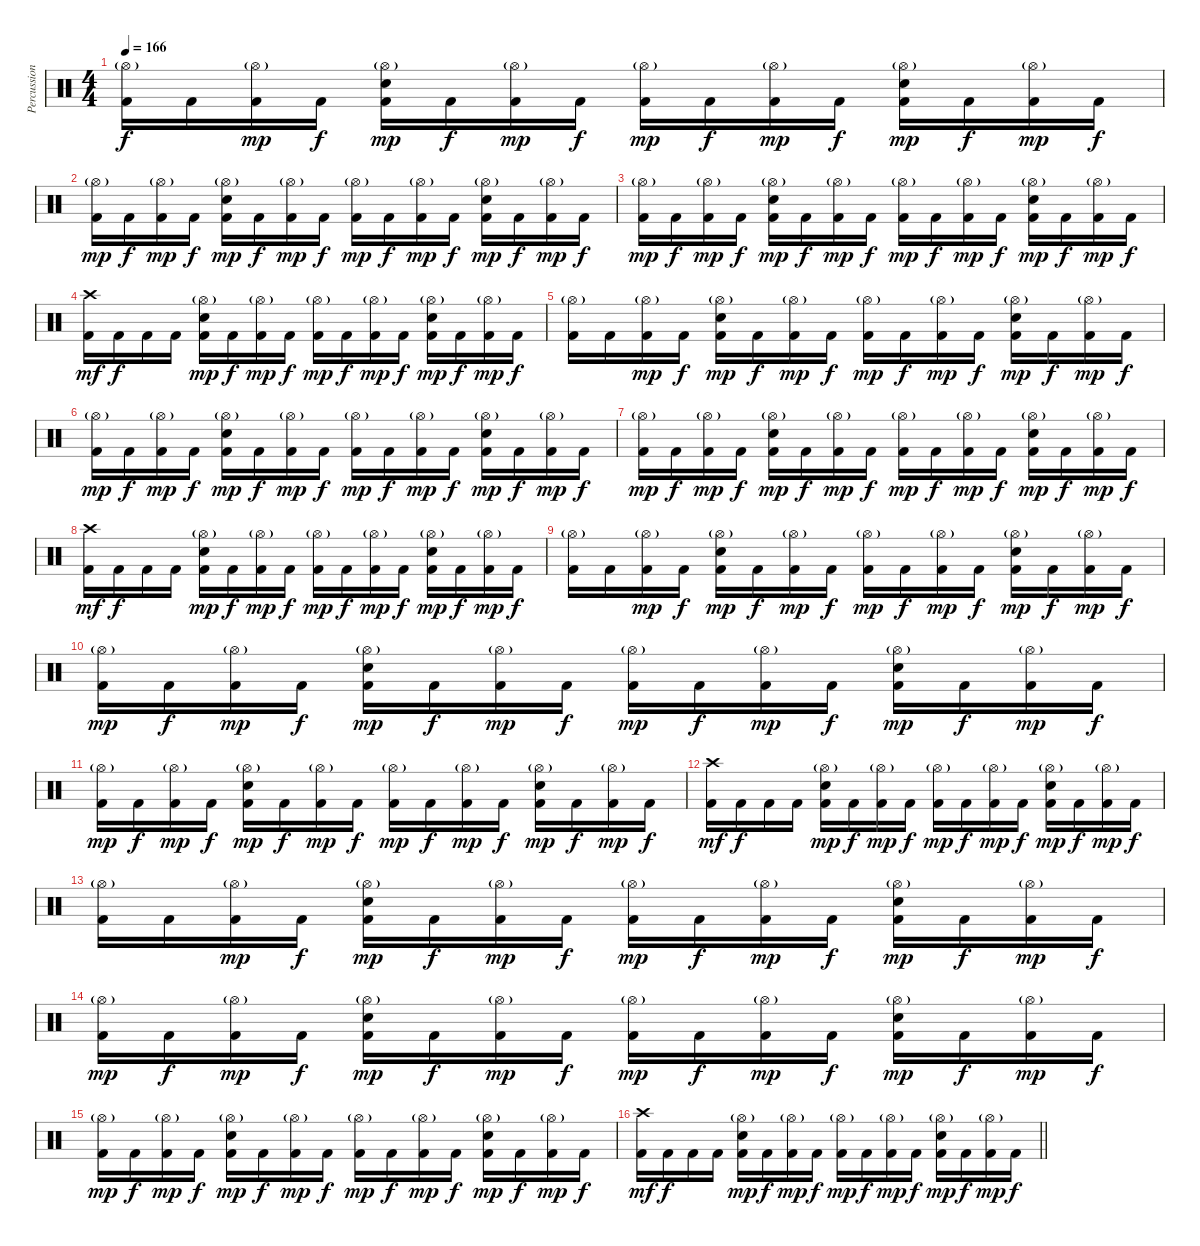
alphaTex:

\track ("Percussion" "Percussion") {instrument percussion}
\staff {score}
\articulation defaults
\ts (4 4)
\tempo 166
\clef neutral
\ks c
("Kick (hit) 2" "Hi-Hat (open)"{g}).16{dy f} "Kick (hit) 2".16 ("Kick (hit) 2" "Hi-Hat (open)"{g}).16{dy mp} "Kick (hit) 2".16{dy f} ("Kick (hit) 2" "Electric Snare (hit)" "Hi-Hat (open)"{g}).16{dy mp} "Kick (hit) 2".16{dy f} ("Kick (hit) 2" "Hi-Hat (open)"{g}).16{dy mp} "Kick (hit) 2".16{dy f} ("Kick (hit) 2" "Hi-Hat (open)"{g}).16{dy mp} "Kick (hit) 2".16{dy f} ("Kick (hit) 2" "Hi-Hat (open)"{g}).16{dy mp} "Kick (hit) 2".16{dy f} ("Kick (hit) 2" "Electric Snare (hit)" "Hi-Hat (open)"{g}).16{dy mp} "Kick (hit) 2".16{dy f} ("Kick (hit) 2" "Hi-Hat (open)"{g}).16{dy mp} "Kick (hit) 2".16{dy f} |
("Kick (hit) 2" "Hi-Hat (open)"{g}).16{dy mp} "Kick (hit) 2".16{dy f} ("Kick (hit) 2" "Hi-Hat (open)"{g}).16{dy mp} "Kick (hit) 2".16{dy f} ("Kick (hit) 2" "Electric Snare (hit)" "Hi-Hat (open)"{g}).16{dy mp} "Kick (hit) 2".16{dy f} ("Kick (hit) 2" "Hi-Hat (open)"{g}).16{dy mp} "Kick (hit) 2".16{dy f} ("Kick (hit) 2" "Hi-Hat (open)"{g}).16{dy mp} "Kick (hit) 2".16{dy f} ("Kick (hit) 2" "Hi-Hat (open)"{g}).16{dy mp} "Kick (hit) 2".16{dy f} ("Kick (hit) 2" "Electric Snare (hit)" "Hi-Hat (open)"{g}).16{dy mp} "Kick (hit) 2".16{dy f} ("Kick (hit) 2" "Hi-Hat (open)"{g}).16{dy mp} "Kick (hit) 2".16{dy f} |
("Kick (hit) 2" "Hi-Hat (open)"{g}).16{dy mp} "Kick (hit) 2".16{dy f} ("Kick (hit) 2" "Hi-Hat (open)"{g}).16{dy mp} "Kick (hit) 2".16{dy f} ("Kick (hit) 2" "Electric Snare (hit)" "Hi-Hat (open)"{g}).16{dy mp} "Kick (hit) 2".16{dy f} ("Kick (hit) 2" "Hi-Hat (open)"{g}).16{dy mp} "Kick (hit) 2".16{dy f} ("Kick (hit) 2" "Hi-Hat (open)"{g}).16{dy mp} "Kick (hit) 2".16{dy f} ("Kick (hit) 2" "Hi-Hat (open)"{g}).16{dy mp} "Kick (hit) 2".16{dy f} ("Kick (hit) 2" "Electric Snare (hit)" "Hi-Hat (open)"{g}).16{dy mp} "Kick (hit) 2".16{dy f} ("Kick (hit) 2" "Hi-Hat (open)"{g}).16{dy mp} "Kick (hit) 2".16{dy f} |
("Kick (hit) 2" "Crash high (hit)").16{dy mf} "Kick (hit) 2".16{dy f} "Kick (hit) 2".16 "Kick (hit) 2".16 ("Kick (hit) 2" "Electric Snare (hit)" "Hi-Hat (open)"{g}).16{dy mp} "Kick (hit) 2".16{dy f} ("Kick (hit) 2" "Hi-Hat (open)"{g}).16{dy mp} "Kick (hit) 2".16{dy f} ("Kick (hit) 2" "Hi-Hat (open)"{g}).16{dy mp} "Kick (hit) 2".16{dy f} ("Kick (hit) 2" "Hi-Hat (open)"{g}).16{dy mp} "Kick (hit) 2".16{dy f} ("Kick (hit) 2" "Electric Snare (hit)" "Hi-Hat (open)"{g}).16{dy mp} "Kick (hit) 2".16{dy f} ("Kick (hit) 2" "Hi-Hat (open)"{g}).16{dy mp} "Kick (hit) 2".16{dy f} |
("Kick (hit) 2" "Hi-Hat (open)"{g}).16 "Kick (hit) 2".16 ("Kick (hit) 2" "Hi-Hat (open)"{g}).16{dy mp} "Kick (hit) 2".16{dy f} ("Kick (hit) 2" "Electric Snare (hit)" "Hi-Hat (open)"{g}).16{dy mp} "Kick (hit) 2".16{dy f} ("Kick (hit) 2" "Hi-Hat (open)"{g}).16{dy mp} "Kick (hit) 2".16{dy f} ("Kick (hit) 2" "Hi-Hat (open)"{g}).16{dy mp} "Kick (hit) 2".16{dy f} ("Kick (hit) 2" "Hi-Hat (open)"{g}).16{dy mp} "Kick (hit) 2".16{dy f} ("Kick (hit) 2" "Electric Snare (hit)" "Hi-Hat (open)"{g}).16{dy mp} "Kick (hit) 2".16{dy f} ("Kick (hit) 2" "Hi-Hat (open)"{g}).16{dy mp} "Kick (hit) 2".16{dy f} |
("Kick (hit) 2" "Hi-Hat (open)"{g}).16{dy mp} "Kick (hit) 2".16{dy f} ("Kick (hit) 2" "Hi-Hat (open)"{g}).16{dy mp} "Kick (hit) 2".16{dy f} ("Kick (hit) 2" "Electric Snare (hit)" "Hi-Hat (open)"{g}).16{dy mp} "Kick (hit) 2".16{dy f} ("Kick (hit) 2" "Hi-Hat (open)"{g}).16{dy mp} "Kick (hit) 2".16{dy f} ("Kick (hit) 2" "Hi-Hat (open)"{g}).16{dy mp} "Kick (hit) 2".16{dy f} ("Kick (hit) 2" "Hi-Hat (open)"{g}).16{dy mp} "Kick (hit) 2".16{dy f} ("Kick (hit) 2" "Electric Snare (hit)" "Hi-Hat (open)"{g}).16{dy mp} "Kick (hit) 2".16{dy f} ("Kick (hit) 2" "Hi-Hat (open)"{g}).16{dy mp} "Kick (hit) 2".16{dy f} |
("Kick (hit) 2" "Hi-Hat (open)"{g}).16{dy mp} "Kick (hit) 2".16{dy f} ("Kick (hit) 2" "Hi-Hat (open)"{g}).16{dy mp} "Kick (hit) 2".16{dy f} ("Kick (hit) 2" "Electric Snare (hit)" "Hi-Hat (open)"{g}).16{dy mp} "Kick (hit) 2".16{dy f} ("Kick (hit) 2" "Hi-Hat (open)"{g}).16{dy mp} "Kick (hit) 2".16{dy f} ("Kick (hit) 2" "Hi-Hat (open)"{g}).16{dy mp} "Kick (hit) 2".16{dy f} ("Kick (hit) 2" "Hi-Hat (open)"{g}).16{dy mp} "Kick (hit) 2".16{dy f} ("Kick (hit) 2" "Electric Snare (hit)" "Hi-Hat (open)"{g}).16{dy mp} "Kick (hit) 2".16{dy f} ("Kick (hit) 2" "Hi-Hat (open)"{g}).16{dy mp} "Kick (hit) 2".16{dy f} |
("Kick (hit) 2" "Crash high (hit)").16{dy mf} "Kick (hit) 2".16{dy f} "Kick (hit) 2".16 "Kick (hit) 2".16 ("Kick (hit) 2" "Electric Snare (hit)" "Hi-Hat (open)"{g}).16{dy mp} "Kick (hit) 2".16{dy f} ("Kick (hit) 2" "Hi-Hat (open)"{g}).16{dy mp} "Kick (hit) 2".16{dy f} ("Kick (hit) 2" "Hi-Hat (open)"{g}).16{dy mp} "Kick (hit) 2".16{dy f} ("Kick (hit) 2" "Hi-Hat (open)"{g}).16{dy mp} "Kick (hit) 2".16{dy f} ("Kick (hit) 2" "Electric Snare (hit)" "Hi-Hat (open)"{g}).16{dy mp} "Kick (hit) 2".16{dy f} ("Kick (hit) 2" "Hi-Hat (open)"{g}).16{dy mp} "Kick (hit) 2".16{dy f} |
("Kick (hit) 2" "Hi-Hat (open)"{g}).16 "Kick (hit) 2".16 ("Kick (hit) 2" "Hi-Hat (open)"{g}).16{dy mp} "Kick (hit) 2".16{dy f} ("Kick (hit) 2" "Electric Snare (hit)" "Hi-Hat (open)"{g}).16{dy mp} "Kick (hit) 2".16{dy f} ("Kick (hit) 2" "Hi-Hat (open)"{g}).16{dy mp} "Kick (hit) 2".16{dy f} ("Kick (hit) 2" "Hi-Hat (open)"{g}).16{dy mp} "Kick (hit) 2".16{dy f} ("Kick (hit) 2" "Hi-Hat (open)"{g}).16{dy mp} "Kick (hit) 2".16{dy f} ("Kick (hit) 2" "Electric Snare (hit)" "Hi-Hat (open)"{g}).16{dy mp} "Kick (hit) 2".16{dy f} ("Kick (hit) 2" "Hi-Hat (open)"{g}).16{dy mp} "Kick (hit) 2".16{dy f} |
("Kick (hit) 2" "Hi-Hat (open)"{g}).16{dy mp} "Kick (hit) 2".16{dy f} ("Kick (hit) 2" "Hi-Hat (open)"{g}).16{dy mp} "Kick (hit) 2".16{dy f} ("Kick (hit) 2" "Electric Snare (hit)" "Hi-Hat (open)"{g}).16{dy mp} "Kick (hit) 2".16{dy f} ("Kick (hit) 2" "Hi-Hat (open)"{g}).16{dy mp} "Kick (hit) 2".16{dy f} ("Kick (hit) 2" "Hi-Hat (open)"{g}).16{dy mp} "Kick (hit) 2".16{dy f} ("Kick (hit) 2" "Hi-Hat (open)"{g}).16{dy mp} "Kick (hit) 2".16{dy f} ("Kick (hit) 2" "Electric Snare (hit)" "Hi-Hat (open)"{g}).16{dy mp} "Kick (hit) 2".16{dy f} ("Kick (hit) 2" "Hi-Hat (open)"{g}).16{dy mp} "Kick (hit) 2".16{dy f} |
("Kick (hit) 2" "Hi-Hat (open)"{g}).16{dy mp} "Kick (hit) 2".16{dy f} ("Kick (hit) 2" "Hi-Hat (open)"{g}).16{dy mp} "Kick (hit) 2".16{dy f} ("Kick (hit) 2" "Electric Snare (hit)" "Hi-Hat (open)"{g}).16{dy mp} "Kick (hit) 2".16{dy f} ("Kick (hit) 2" "Hi-Hat (open)"{g}).16{dy mp} "Kick (hit) 2".16{dy f} ("Kick (hit) 2" "Hi-Hat (open)"{g}).16{dy mp} "Kick (hit) 2".16{dy f} ("Kick (hit) 2" "Hi-Hat (open)"{g}).16{dy mp} "Kick (hit) 2".16{dy f} ("Kick (hit) 2" "Electric Snare (hit)" "Hi-Hat (open)"{g}).16{dy mp} "Kick (hit) 2".16{dy f} ("Kick (hit) 2" "Hi-Hat (open)"{g}).16{dy mp} "Kick (hit) 2".16{dy f} |
("Kick (hit) 2" "Crash high (hit)").16{dy mf} "Kick (hit) 2".16{dy f} "Kick (hit) 2".16 "Kick (hit) 2".16 ("Kick (hit) 2" "Electric Snare (hit)" "Hi-Hat (open)"{g}).16{dy mp} "Kick (hit) 2".16{dy f} ("Kick (hit) 2" "Hi-Hat (open)"{g}).16{dy mp} "Kick (hit) 2".16{dy f} ("Kick (hit) 2" "Hi-Hat (open)"{g}).16{dy mp} "Kick (hit) 2".16{dy f} ("Kick (hit) 2" "Hi-Hat (open)"{g}).16{dy mp} "Kick (hit) 2".16{dy f} ("Kick (hit) 2" "Electric Snare (hit)" "Hi-Hat (open)"{g}).16{dy mp} "Kick (hit) 2".16{dy f} ("Kick (hit) 2" "Hi-Hat (open)"{g}).16{dy mp} "Kick (hit) 2".16{dy f} |
("Kick (hit) 2" "Hi-Hat (open)"{g}).16 "Kick (hit) 2".16 ("Kick (hit) 2" "Hi-Hat (open)"{g}).16{dy mp} "Kick (hit) 2".16{dy f} ("Kick (hit) 2" "Electric Snare (hit)" "Hi-Hat (open)"{g}).16{dy mp} "Kick (hit) 2".16{dy f} ("Kick (hit) 2" "Hi-Hat (open)"{g}).16{dy mp} "Kick (hit) 2".16{dy f} ("Kick (hit) 2" "Hi-Hat (open)"{g}).16{dy mp} "Kick (hit) 2".16{dy f} ("Kick (hit) 2" "Hi-Hat (open)"{g}).16{dy mp} "Kick (hit) 2".16{dy f} ("Kick (hit) 2" "Electric Snare (hit)" "Hi-Hat (open)"{g}).16{dy mp} "Kick (hit) 2".16{dy f} ("Kick (hit) 2" "Hi-Hat (open)"{g}).16{dy mp} "Kick (hit) 2".16{dy f} |
("Kick (hit) 2" "Hi-Hat (open)"{g}).16{dy mp} "Kick (hit) 2".16{dy f} ("Kick (hit) 2" "Hi-Hat (open)"{g}).16{dy mp} "Kick (hit) 2".16{dy f} ("Kick (hit) 2" "Electric Snare (hit)" "Hi-Hat (open)"{g}).16{dy mp} "Kick (hit) 2".16{dy f} ("Kick (hit) 2" "Hi-Hat (open)"{g}).16{dy mp} "Kick (hit) 2".16{dy f} ("Kick (hit) 2" "Hi-Hat (open)"{g}).16{dy mp} "Kick (hit) 2".16{dy f} ("Kick (hit) 2" "Hi-Hat (open)"{g}).16{dy mp} "Kick (hit) 2".16{dy f} ("Kick (hit) 2" "Electric Snare (hit)" "Hi-Hat (open)"{g}).16{dy mp} "Kick (hit) 2".16{dy f} ("Kick (hit) 2" "Hi-Hat (open)"{g}).16{dy mp} "Kick (hit) 2".16{dy f} |
("Kick (hit) 2" "Hi-Hat (open)"{g}).16{dy mp} "Kick (hit) 2".16{dy f} ("Kick (hit) 2" "Hi-Hat (open)"{g}).16{dy mp} "Kick (hit) 2".16{dy f} ("Kick (hit) 2" "Electric Snare (hit)" "Hi-Hat (open)"{g}).16{dy mp} "Kick (hit) 2".16{dy f} ("Kick (hit) 2" "Hi-Hat (open)"{g}).16{dy mp} "Kick (hit) 2".16{dy f} ("Kick (hit) 2" "Hi-Hat (open)"{g}).16{dy mp} "Kick (hit) 2".16{dy f} ("Kick (hit) 2" "Hi-Hat (open)"{g}).16{dy mp} "Kick (hit) 2".16{dy f} ("Kick (hit) 2" "Electric Snare (hit)" "Hi-Hat (open)"{g}).16{dy mp} "Kick (hit) 2".16{dy f} ("Kick (hit) 2" "Hi-Hat (open)"{g}).16{dy mp} "Kick (hit) 2".16{dy f} |
\barLineRight lightlight
("Kick (hit) 2" "Crash high (hit)").16{dy mf} "Kick (hit) 2".16{dy f} "Kick (hit) 2".16 "Kick (hit) 2".16 ("Kick (hit) 2" "Electric Snare (hit)" "Hi-Hat (open)"{g}).16{dy mp} "Kick (hit) 2".16{dy f} ("Kick (hit) 2" "Hi-Hat (open)"{g}).16{dy mp} "Kick (hit) 2".16{dy f} ("Kick (hit) 2" "Hi-Hat (open)"{g}).16{dy mp} "Kick (hit) 2".16{dy f} ("Kick (hit) 2" "Hi-Hat (open)"{g}).16{dy mp} "Kick (hit) 2".16{dy f} ("Kick (hit) 2" "Electric Snare (hit)" "Hi-Hat (open)"{g}).16{dy mp} "Kick (hit) 2".16{dy f} ("Kick (hit) 2" "Hi-Hat (open)"{g}).16{dy mp} "Kick (hit) 2".16{dy f}
